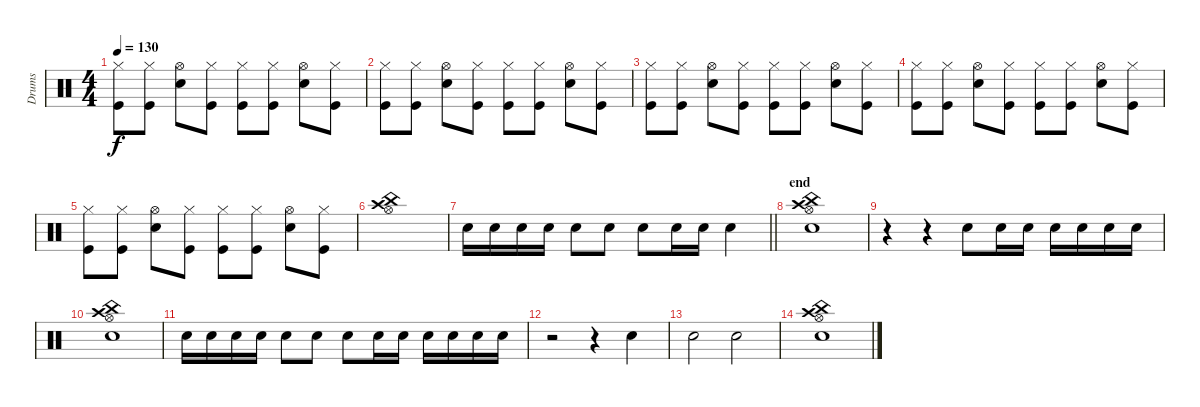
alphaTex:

\track ("Drums" "Drums") {instrument percussion}
\staff {score}
\articulation defaults
\ts (4 4)
\tempo 130
\clef neutral
\ks c
("Hi-Hat (closed)" "Kick (hit)").8{dy f} ("Hi-Hat (closed)" "Kick (hit)").8 ("Hi-Hat (open)" "Snare (hit) 2").8 ("Hi-Hat (closed)" "Kick (hit)").8 ("Hi-Hat (closed)" "Kick (hit)").8 ("Hi-Hat (closed)" "Kick (hit)").8 ("Hi-Hat (open)" "Snare (hit) 2").8 ("Hi-Hat (closed)" "Kick (hit)").8 |
("Hi-Hat (closed)" "Kick (hit)").8 ("Hi-Hat (closed)" "Kick (hit)").8 ("Hi-Hat (open)" "Snare (hit) 2").8 ("Hi-Hat (closed)" "Kick (hit)").8 ("Hi-Hat (closed)" "Kick (hit)").8 ("Hi-Hat (closed)" "Kick (hit)").8 ("Hi-Hat (open)" "Snare (hit) 2").8 ("Hi-Hat (closed)" "Kick (hit)").8 |
("Hi-Hat (closed)" "Kick (hit)").8 ("Hi-Hat (closed)" "Kick (hit)").8 ("Hi-Hat (open)" "Snare (hit) 2").8 ("Hi-Hat (closed)" "Kick (hit)").8 ("Hi-Hat (closed)" "Kick (hit)").8 ("Hi-Hat (closed)" "Kick (hit)").8 ("Hi-Hat (open)" "Snare (hit) 2").8 ("Hi-Hat (closed)" "Kick (hit)").8 |
("Hi-Hat (closed)" "Kick (hit)").8 ("Hi-Hat (closed)" "Kick (hit)").8 ("Hi-Hat (open)" "Snare (hit) 2").8 ("Hi-Hat (closed)" "Kick (hit)").8 ("Hi-Hat (closed)" "Kick (hit)").8 ("Hi-Hat (closed)" "Kick (hit)").8 ("Hi-Hat (open)" "Snare (hit) 2").8 ("Hi-Hat (closed)" "Kick (hit)").8 |
("Hi-Hat (closed)" "Kick (hit)").8 ("Hi-Hat (closed)" "Kick (hit)").8 ("Hi-Hat (open)" "Snare (hit) 2").8 ("Hi-Hat (closed)" "Kick (hit)").8 ("Hi-Hat (closed)" "Kick (hit)").8 ("Hi-Hat (closed)" "Kick (hit)").8 ("Hi-Hat (open)" "Snare (hit) 2").8 ("Hi-Hat (closed)" "Kick (hit)").8 |
("Crash high (hit)" "Hi-Hat (open)" "China (hit)").1 |
\barLineRight lightlight "Snare (hit) 2".16 "Snare (hit) 2".16 "Snare (hit) 2".16 "Snare (hit) 2".16 "Snare (hit) 2".8 "Snare (hit) 2".8 "Snare (hit) 2".8 "Snare (hit) 2".16 "Snare (hit) 2".16 "Snare (hit) 2".4
|
\section ("" "end")
("Snare (hit) 2" "Crash high (hit)" "Hi-Hat (open)" "China (hit)").1 |
r.4 r.4 "Snare (hit) 2".8 "Snare (hit) 2".16 "Snare (hit) 2".16 "Snare (hit) 2".16 "Snare (hit) 2".16 "Snare (hit) 2".16 "Snare (hit) 2".16 |
("Snare (hit) 2" "Crash high (hit)" "Hi-Hat (open)" "China (hit)").1 |
"Snare (hit) 2".16 "Snare (hit) 2".16 "Snare (hit) 2".16 "Snare (hit) 2".16 "Snare (hit) 2".8 "Snare (hit) 2".8 "Snare (hit) 2".8 "Snare (hit) 2".16 "Snare (hit) 2".16 "Snare (hit) 2".16 "Snare (hit) 2".16 "Snare (hit) 2".16 "Snare (hit) 2".16 |
r.2 r.4 "Snare (hit) 2".4 |
"Snare (hit) 2".2 "Snare (hit) 2".2 |
("Snare (hit) 2" "Crash high (hit)" "Hi-Hat (open)" "China (hit)").1
